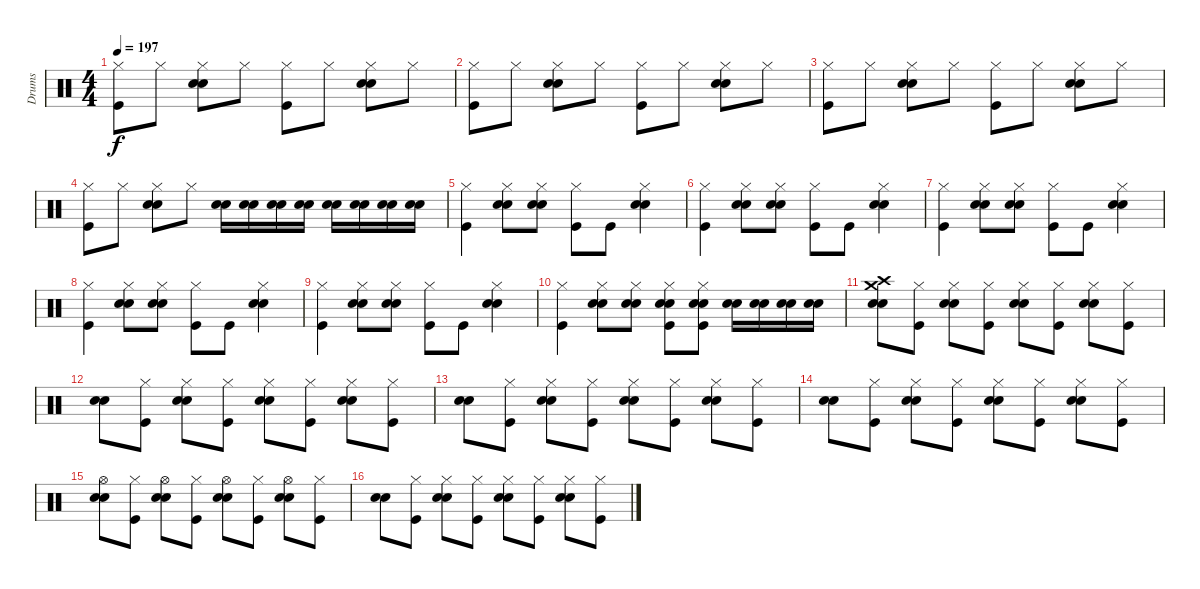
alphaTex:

\track ("Drums" "Drums") {instrument percussion}
\staff {score}
\articulation defaults
\ts (4 4)
\tempo 197
\clef neutral
\ks c
("Hi-Hat (closed)" "Kick (hit)").8{dy f} "Hi-Hat (closed)".8 ("Electric Snare (hit)" "Snare (hit) 2" "Hi-Hat (closed)").8 "Hi-Hat (closed)".8 ("Hi-Hat (closed)" "Kick (hit)").8 "Hi-Hat (closed)".8 ("Electric Snare (hit)" "Snare (hit) 2" "Hi-Hat (closed)").8 "Hi-Hat (closed)".8 |
("Hi-Hat (closed)" "Kick (hit)").8 "Hi-Hat (closed)".8 ("Electric Snare (hit)" "Snare (hit) 2" "Hi-Hat (closed)").8 "Hi-Hat (closed)".8 ("Hi-Hat (closed)" "Kick (hit)").8 "Hi-Hat (closed)".8 ("Electric Snare (hit)" "Snare (hit) 2" "Hi-Hat (closed)").8 "Hi-Hat (closed)".8 |
("Hi-Hat (closed)" "Kick (hit)").8 "Hi-Hat (closed)".8 ("Electric Snare (hit)" "Snare (hit) 2" "Hi-Hat (closed)").8 "Hi-Hat (closed)".8 ("Hi-Hat (closed)" "Kick (hit)").8 "Hi-Hat (closed)".8 ("Electric Snare (hit)" "Snare (hit) 2" "Hi-Hat (closed)").8 "Hi-Hat (closed)".8 |
("Hi-Hat (closed)" "Kick (hit)").8 "Hi-Hat (closed)".8 ("Electric Snare (hit)" "Snare (hit) 2" "Hi-Hat (closed)").8 "Hi-Hat (closed)".8 ("Electric Snare (hit)" "Snare (hit) 2").16 ("Electric Snare (hit)" "Snare (hit) 2").16 ("Electric Snare (hit)" "Snare (hit) 2").16 ("Electric Snare (hit)" "Snare (hit) 2").16 ("Electric Snare (hit)" "Snare (hit) 2").16 ("Electric Snare (hit)" "Snare (hit) 2").16 ("Electric Snare (hit)" "Snare (hit) 2").16 ("Electric Snare (hit)" "Snare (hit) 2").16 |
("Hi-Hat (closed)" "Kick (hit)").4 ("Electric Snare (hit)" "Snare (hit) 2" "Hi-Hat (closed)").8 ("Electric Snare (hit)" "Snare (hit) 2" "Hi-Hat (closed)").8 ("Hi-Hat (closed)" "Kick (hit)").8 "Kick (hit)".8 ("Electric Snare (hit)" "Snare (hit) 2" "Hi-Hat (closed)").4 |
("Hi-Hat (closed)" "Kick (hit)").4 ("Electric Snare (hit)" "Snare (hit) 2" "Hi-Hat (closed)").8 ("Electric Snare (hit)" "Snare (hit) 2" "Hi-Hat (closed)").8 ("Hi-Hat (closed)" "Kick (hit)").8 "Kick (hit)".8 ("Electric Snare (hit)" "Snare (hit) 2" "Hi-Hat (closed)").4 |
("Hi-Hat (closed)" "Kick (hit)").4 ("Electric Snare (hit)" "Snare (hit) 2" "Hi-Hat (closed)").8 ("Electric Snare (hit)" "Snare (hit) 2" "Hi-Hat (closed)").8 ("Hi-Hat (closed)" "Kick (hit)").8 "Kick (hit)".8 ("Electric Snare (hit)" "Snare (hit) 2" "Hi-Hat (closed)").4 |
("Hi-Hat (closed)" "Kick (hit)").4 ("Electric Snare (hit)" "Snare (hit) 2" "Hi-Hat (closed)").8 ("Electric Snare (hit)" "Snare (hit) 2" "Hi-Hat (closed)").8 ("Hi-Hat (closed)" "Kick (hit)").8 "Kick (hit)".8 ("Electric Snare (hit)" "Snare (hit) 2" "Hi-Hat (closed)").4 |
("Hi-Hat (closed)" "Kick (hit)").4 ("Electric Snare (hit)" "Snare (hit) 2" "Hi-Hat (closed)").8 ("Electric Snare (hit)" "Snare (hit) 2" "Hi-Hat (closed)").8 ("Hi-Hat (closed)" "Kick (hit)").8 "Kick (hit)".8 ("Electric Snare (hit)" "Snare (hit) 2" "Hi-Hat (closed)").4 |
("Hi-Hat (closed)" "Kick (hit)").4 ("Electric Snare (hit)" "Snare (hit) 2" "Hi-Hat (closed)").8 ("Electric Snare (hit)" "Snare (hit) 2" "Hi-Hat (closed)").8 ("Electric Snare (hit)" "Snare (hit) 2" "Hi-Hat (closed)" "Kick (hit)").8 ("Electric Snare (hit)" "Snare (hit) 2" "Hi-Hat (closed)" "Kick (hit)").8 ("Electric Snare (hit)" "Snare (hit) 2").16 ("Electric Snare (hit)" "Snare (hit) 2").16 ("Electric Snare (hit)" "Snare (hit) 2").16 ("Electric Snare (hit)" "Snare (hit) 2").16 |
("Crash high (hit)" "Crash medium (hit)" "Electric Snare (hit)" "Snare (hit) 2").8 ("Hi-Hat (closed)" "Kick (hit)").8 ("Electric Snare (hit)" "Hi-Hat (closed)" "Snare (hit) 2").8 ("Hi-Hat (closed)" "Kick (hit)").8 ("Electric Snare (hit)" "Hi-Hat (closed)" "Snare (hit) 2").8 ("Hi-Hat (closed)" "Kick (hit)").8 ("Electric Snare (hit)" "Hi-Hat (closed)" "Snare (hit) 2").8 ("Hi-Hat (closed)" "Kick (hit)").8 |
("Electric Snare (hit)" "Snare (hit) 2").8 ("Hi-Hat (closed)" "Kick (hit)").8 ("Electric Snare (hit)" "Hi-Hat (closed)" "Snare (hit) 2").8 ("Hi-Hat (closed)" "Kick (hit)").8 ("Electric Snare (hit)" "Hi-Hat (closed)" "Snare (hit) 2").8 ("Hi-Hat (closed)" "Kick (hit)").8 ("Electric Snare (hit)" "Hi-Hat (closed)" "Snare (hit) 2").8 ("Hi-Hat (closed)" "Kick (hit)").8 |
("Electric Snare (hit)" "Snare (hit) 2").8 ("Hi-Hat (closed)" "Kick (hit)").8 ("Electric Snare (hit)" "Hi-Hat (closed)" "Snare (hit) 2").8 ("Hi-Hat (closed)" "Kick (hit)").8 ("Electric Snare (hit)" "Hi-Hat (closed)" "Snare (hit) 2").8 ("Hi-Hat (closed)" "Kick (hit)").8 ("Electric Snare (hit)" "Hi-Hat (closed)" "Snare (hit) 2").8 ("Hi-Hat (closed)" "Kick (hit)").8 |
("Electric Snare (hit)" "Snare (hit) 2").8 ("Hi-Hat (closed)" "Kick (hit)").8 ("Electric Snare (hit)" "Hi-Hat (closed)" "Snare (hit) 2").8 ("Hi-Hat (closed)" "Kick (hit)").8 ("Electric Snare (hit)" "Hi-Hat (closed)" "Snare (hit) 2").8 ("Hi-Hat (closed)" "Kick (hit)").8 ("Electric Snare (hit)" "Hi-Hat (closed)" "Snare (hit) 2").8 ("Hi-Hat (closed)" "Kick (hit)").8 |
("Electric Snare (hit)" "Hi-Hat (open)" "Snare (hit) 2").8 ("Hi-Hat (closed)" "Kick (hit)").8 ("Electric Snare (hit)" "Hi-Hat (open)" "Snare (hit) 2").8 ("Hi-Hat (closed)" "Kick (hit)").8 ("Electric Snare (hit)" "Hi-Hat (open)" "Snare (hit) 2").8 ("Hi-Hat (closed)" "Kick (hit)").8 ("Electric Snare (hit)" "Hi-Hat (open)" "Snare (hit) 2").8 ("Hi-Hat (closed)" "Kick (hit)").8 |
("Electric Snare (hit)" "Snare (hit) 2").8 ("Hi-Hat (closed)" "Kick (hit)").8 ("Electric Snare (hit)" "Hi-Hat (closed)" "Snare (hit) 2").8 ("Hi-Hat (closed)" "Kick (hit)").8 ("Electric Snare (hit)" "Hi-Hat (closed)" "Snare (hit) 2").8 ("Hi-Hat (closed)" "Kick (hit)").8 ("Electric Snare (hit)" "Hi-Hat (closed)" "Snare (hit) 2").8 ("Hi-Hat (closed)" "Kick (hit)").8
